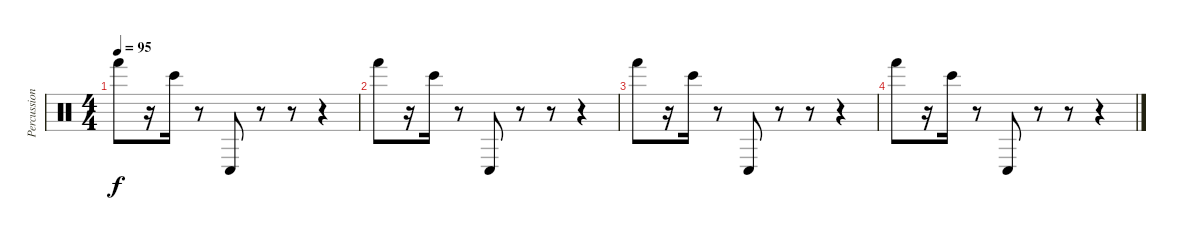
\track ("Percussion (1)" "Percussion") {instrument percussion}
\staff {score}
\articulation defaults
\ts (4 4)
\tempo 95
\clef neutral
\ks c "Hand (hit)".8{dy f}
r.16 "Bongo High (hit)".16 r.8 "Conga low (hit)".8 r.8 r.8 r.4 |
"Hand (hit)".8 r.16 "Bongo High (hit)".16 r.8 "Conga low (hit)".8 r.8 r.8 r.4 |
"Hand (hit)".8 r.16 "Bongo High (hit)".16 r.8 "Conga low (hit)".8 r.8 r.8 r.4 |
"Hand (hit)".8 r.16 "Bongo High (hit)".16 r.8 "Conga low (hit)".8 r.8 r.8 r.4
